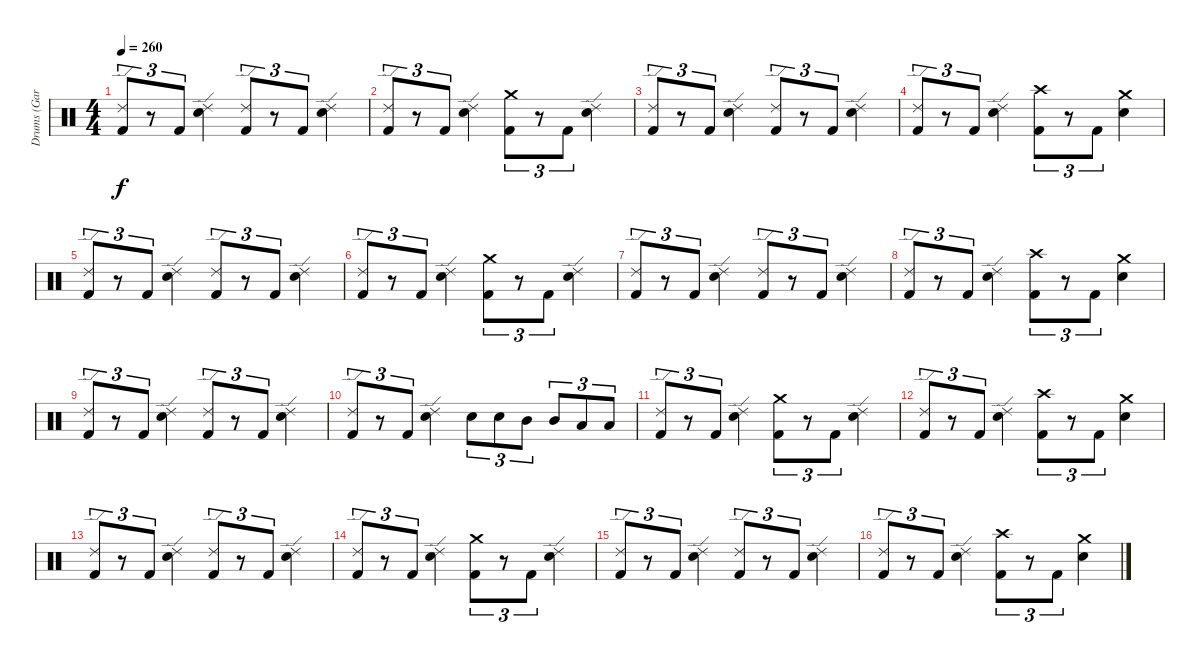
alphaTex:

\track ("Drums (Gar Samuelson)" "Drums (Gar") {instrument percussion}
\staff {score}
\articulation defaults
\ts (4 4)
\tempo 260
\clef neutral
\ks c
("Ride (edge) 2" "Kick (hit) 2").8{tu (3 2) dy f} r.8{tu (3 2)} "Kick (hit) 2".8{tu (3 2)} ("Ride (edge) 2" "Snare (hit) 2").4 ("Ride (edge) 2" "Kick (hit) 2").8{tu (3 2)} r.8{tu (3 2)} "Kick (hit) 2".8{tu (3 2)} ("Ride (edge) 2" "Snare (hit) 2").4 |
("Ride (edge) 2" "Kick (hit) 2").8{tu (3 2)} r.8{tu (3 2)} "Kick (hit) 2".8{tu (3 2)} ("Ride (edge) 2" "Snare (hit) 2").4 ("Crash medium (hit)" "Kick (hit) 2").8{tu (3 2)} r.8{tu (3 2)} "Kick (hit) 2".8{tu (3 2)} ("Ride (edge) 2" "Snare (hit) 2").4 |
("Ride (edge) 2" "Kick (hit) 2").8{tu (3 2)} r.8{tu (3 2)} "Kick (hit) 2".8{tu (3 2)} ("Ride (edge) 2" "Snare (hit) 2").4 ("Ride (edge) 2" "Kick (hit) 2").8{tu (3 2)} r.8{tu (3 2)} "Kick (hit) 2".8{tu (3 2)} ("Ride (edge) 2" "Snare (hit) 2").4 |
("Ride (edge) 2" "Kick (hit) 2").8{tu (3 2)} r.8{tu (3 2)} "Kick (hit) 2".8{tu (3 2)} ("Ride (edge) 2" "Snare (hit) 2").4 ("Crash high (hit)" "Kick (hit) 2").8{tu (3 2)} r.8{tu (3 2)} "Kick (hit) 2".8{tu (3 2)} ("Crash medium (hit)" "Snare (hit) 2").4 |
("Ride (edge) 2" "Kick (hit) 2").8{tu (3 2)} r.8{tu (3 2)} "Kick (hit) 2".8{tu (3 2)} ("Ride (edge) 2" "Snare (hit) 2").4 ("Ride (edge) 2" "Kick (hit) 2").8{tu (3 2)} r.8{tu (3 2)} "Kick (hit) 2".8{tu (3 2)} ("Ride (edge) 2" "Snare (hit) 2").4 |
("Ride (edge) 2" "Kick (hit) 2").8{tu (3 2)} r.8{tu (3 2)} "Kick (hit) 2".8{tu (3 2)} ("Ride (edge) 2" "Snare (hit) 2").4 ("Crash medium (hit)" "Kick (hit) 2").8{tu (3 2)} r.8{tu (3 2)} "Kick (hit) 2".8{tu (3 2)} ("Ride (edge) 2" "Snare (hit) 2").4 |
("Ride (edge) 2" "Kick (hit) 2").8{tu (3 2)} r.8{tu (3 2)} "Kick (hit) 2".8{tu (3 2)} ("Ride (edge) 2" "Snare (hit) 2").4 ("Ride (edge) 2" "Kick (hit) 2").8{tu (3 2)} r.8{tu (3 2)} "Kick (hit) 2".8{tu (3 2)} ("Ride (edge) 2" "Snare (hit) 2").4 |
("Ride (edge) 2" "Kick (hit) 2").8{tu (3 2)} r.8{tu (3 2)} "Kick (hit) 2".8{tu (3 2)} ("Ride (edge) 2" "Snare (hit) 2").4 ("Crash high (hit)" "Kick (hit) 2").8{tu (3 2)} r.8{tu (3 2)} "Kick (hit) 2".8{tu (3 2)} ("Crash medium (hit)" "Snare (hit) 2").4 |
("Ride (edge) 2" "Kick (hit) 2").8{tu (3 2)} r.8{tu (3 2)} "Kick (hit) 2".8{tu (3 2)} ("Ride (edge) 2" "Snare (hit) 2").4 ("Ride (edge) 2" "Kick (hit) 2").8{tu (3 2)} r.8{tu (3 2)} "Kick (hit) 2".8{tu (3 2)} ("Ride (edge) 2" "Snare (hit) 2").4 |
("Ride (edge) 2" "Kick (hit) 2").8{tu (3 2)} r.8{tu (3 2)} "Kick (hit) 2".8{tu (3 2)} ("Ride (edge) 2" "Snare (hit) 2").4 "Snare (hit) 2".8{tu (3 2)} "Snare (hit) 2".8{tu (3 2)} "Mid Tom (hit)".8{tu (3 2)} "Mid Tom (hit)".8{tu (3 2)} "Low Tom (hit)".8{tu (3 2)} "Low Tom (hit)".8{tu (3 2)} |
("Ride (edge) 2" "Kick (hit) 2").8{tu (3 2)} r.8{tu (3 2)} "Kick (hit) 2".8{tu (3 2)} ("Ride (edge) 2" "Snare (hit) 2").4 ("Crash medium (hit)" "Kick (hit) 2").8{tu (3 2)} r.8{tu (3 2)} "Kick (hit) 2".8{tu (3 2)} ("Ride (edge) 2" "Snare (hit) 2").4 |
("Ride (edge) 2" "Kick (hit) 2").8{tu (3 2)} r.8{tu (3 2)} "Kick (hit) 2".8{tu (3 2)} ("Ride (edge) 2" "Snare (hit) 2").4 ("Crash high (hit)" "Kick (hit) 2").8{tu (3 2)} r.8{tu (3 2)} "Kick (hit) 2".8{tu (3 2)} ("Crash medium (hit)" "Snare (hit) 2").4 |
("Ride (edge) 2" "Kick (hit) 2").8{tu (3 2)} r.8{tu (3 2)} "Kick (hit) 2".8{tu (3 2)} ("Ride (edge) 2" "Snare (hit) 2").4 ("Ride (edge) 2" "Kick (hit) 2").8{tu (3 2)} r.8{tu (3 2)} "Kick (hit) 2".8{tu (3 2)} ("Ride (edge) 2" "Snare (hit) 2").4 |
("Ride (edge) 2" "Kick (hit) 2").8{tu (3 2)} r.8{tu (3 2)} "Kick (hit) 2".8{tu (3 2)} ("Ride (edge) 2" "Snare (hit) 2").4 ("Crash medium (hit)" "Kick (hit) 2").8{tu (3 2)} r.8{tu (3 2)} "Kick (hit) 2".8{tu (3 2)} ("Ride (edge) 2" "Snare (hit) 2").4 |
("Ride (edge) 2" "Kick (hit) 2").8{tu (3 2)} r.8{tu (3 2)} "Kick (hit) 2".8{tu (3 2)} ("Ride (edge) 2" "Snare (hit) 2").4 ("Ride (edge) 2" "Kick (hit) 2").8{tu (3 2)} r.8{tu (3 2)} "Kick (hit) 2".8{tu (3 2)} ("Ride (edge) 2" "Snare (hit) 2").4 |
("Ride (edge) 2" "Kick (hit) 2").8{tu (3 2)} r.8{tu (3 2)} "Kick (hit) 2".8{tu (3 2)} ("Ride (edge) 2" "Snare (hit) 2").4 ("Crash high (hit)" "Kick (hit) 2").8{tu (3 2)} r.8{tu (3 2)} "Kick (hit) 2".8{tu (3 2)} ("Crash medium (hit)" "Snare (hit) 2").4
